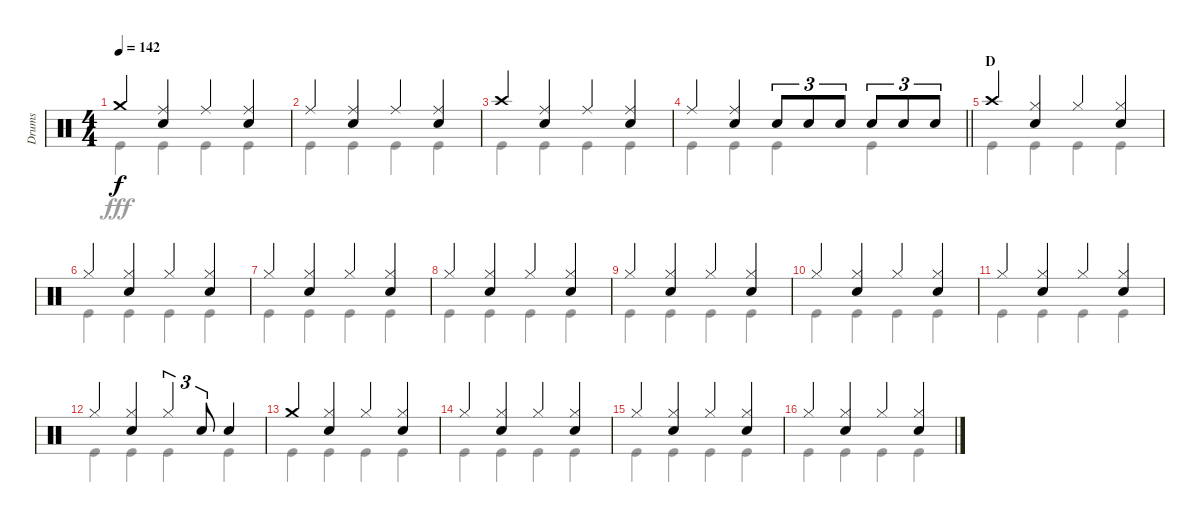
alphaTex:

\track ("Drums" "Drums") {instrument percussion}
\staff {score}
\articulation defaults
\voice
\ts (4 4)
\tempo 142
\clef neutral
\ks c "Crash medium (hit)".4{dy f}
("Ride (middle)" "Snare (hit) 2").4 "Ride (middle)".4 ("Ride (middle)" "Snare (hit) 2").4 |
"Ride (middle)".4 ("Ride (middle)" "Snare (hit) 2").4 "Ride (middle)".4 ("Ride (middle)" "Snare (hit) 2").4 |
"Crash high (hit)".4 ("Ride (middle)" "Snare (hit) 2").4 "Ride (middle)".4 ("Ride (middle)" "Snare (hit) 2").4 |
\barLineRight lightlight "Ride (middle)".4
("Ride (middle)" "Snare (hit) 2").4 "Snare (hit) 2".8{tu (3 2)} "Snare (hit) 2".8{tu (3 2)} "Snare (hit) 2".8{tu (3 2)} "Snare (hit) 2".8{tu (3 2)} "Snare (hit) 2".8{tu (3 2)} "Snare (hit) 2".8{tu (3 2)} |
\section ("" "D")
"Crash high (hit)".4 ("Hi-Hat (closed)" "Snare (hit) 2").4 "Hi-Hat (closed)".4 ("Hi-Hat (closed)" "Snare (hit) 2").4 |
"Hi-Hat (closed)".4 ("Hi-Hat (closed)" "Snare (hit) 2").4 "Hi-Hat (closed)".4 ("Hi-Hat (closed)" "Snare (hit) 2").4 |
"Hi-Hat (closed)".4 ("Hi-Hat (closed)" "Snare (hit) 2").4 "Hi-Hat (closed)".4 ("Hi-Hat (closed)" "Snare (hit) 2").4 |
"Hi-Hat (closed)".4 ("Hi-Hat (closed)" "Snare (hit) 2").4 "Hi-Hat (closed)".4 ("Hi-Hat (closed)" "Snare (hit) 2").4 |
"Hi-Hat (closed)".4 ("Hi-Hat (closed)" "Snare (hit) 2").4 "Hi-Hat (closed)".4 ("Hi-Hat (closed)" "Snare (hit) 2").4 |
"Hi-Hat (closed)".4 ("Hi-Hat (closed)" "Snare (hit) 2").4 "Hi-Hat (closed)".4 ("Hi-Hat (closed)" "Snare (hit) 2").4 |
"Hi-Hat (closed)".4 ("Hi-Hat (closed)" "Snare (hit) 2").4 "Hi-Hat (closed)".4 ("Hi-Hat (closed)" "Snare (hit) 2").4 |
"Hi-Hat (closed)".4 ("Hi-Hat (closed)" "Snare (hit) 2").4 "Hi-Hat (closed)".4{tu (3 2)} "Snare (hit) 2".8{tu (3 2)} "Snare (hit) 2".4 |
"Crash medium (hit)".4 ("Hi-Hat (closed)" "Snare (hit) 2").4 "Hi-Hat (closed)".4 ("Hi-Hat (closed)" "Snare (hit) 2").4 |
"Hi-Hat (closed)".4 ("Hi-Hat (closed)" "Snare (hit) 2").4 "Hi-Hat (closed)".4 ("Hi-Hat (closed)" "Snare (hit) 2").4 |
"Hi-Hat (closed)".4 ("Hi-Hat (closed)" "Snare (hit) 2").4 "Hi-Hat (closed)".4 ("Hi-Hat (closed)" "Snare (hit) 2").4 |
"Hi-Hat (closed)".4 ("Hi-Hat (closed)" "Snare (hit) 2").4 "Hi-Hat (closed)".4 ("Hi-Hat (closed)" "Snare (hit) 2").4
\voice
\clef neutral
\ottava regular
\simile none
\ks c "Kick (hit)".4{dy fff} "Kick (hit)".4 "Kick (hit)".4 "Kick (hit)".4
|
"Kick (hit)".4 "Kick (hit)".4 "Kick (hit)".4 "Kick (hit)".4 |
"Kick (hit)".4 "Kick (hit)".4 "Kick (hit)".4 "Kick (hit)".4 |
\barLineRight lightlight "Kick (hit)".4 "Kick (hit)".4 "Kick (hit)".4 "Kick (hit)".4
|
"Kick (hit)".4 "Kick (hit)".4 "Kick (hit)".4 "Kick (hit)".4 |
"Kick (hit)".4 "Kick (hit)".4 "Kick (hit)".4 "Kick (hit)".4 |
"Kick (hit)".4 "Kick (hit)".4 "Kick (hit)".4 "Kick (hit)".4 |
"Kick (hit)".4 "Kick (hit)".4 "Kick (hit)".4 "Kick (hit)".4 |
"Kick (hit)".4 "Kick (hit)".4 "Kick (hit)".4 "Kick (hit)".4 |
"Kick (hit)".4 "Kick (hit)".4 "Kick (hit)".4 "Kick (hit)".4 |
"Kick (hit)".4 "Kick (hit)".4 "Kick (hit)".4 "Kick (hit)".4 |
"Kick (hit)".4 "Kick (hit)".4 "Kick (hit)".4 "Kick (hit)".4 |
"Kick (hit)".4 "Kick (hit)".4 "Kick (hit)".4 "Kick (hit)".4 |
"Kick (hit)".4 "Kick (hit)".4 "Kick (hit)".4 "Kick (hit)".4 |
"Kick (hit)".4 "Kick (hit)".4 "Kick (hit)".4 "Kick (hit)".4 |
"Kick (hit)".4 "Kick (hit)".4 "Kick (hit)".4 "Kick (hit)".4
